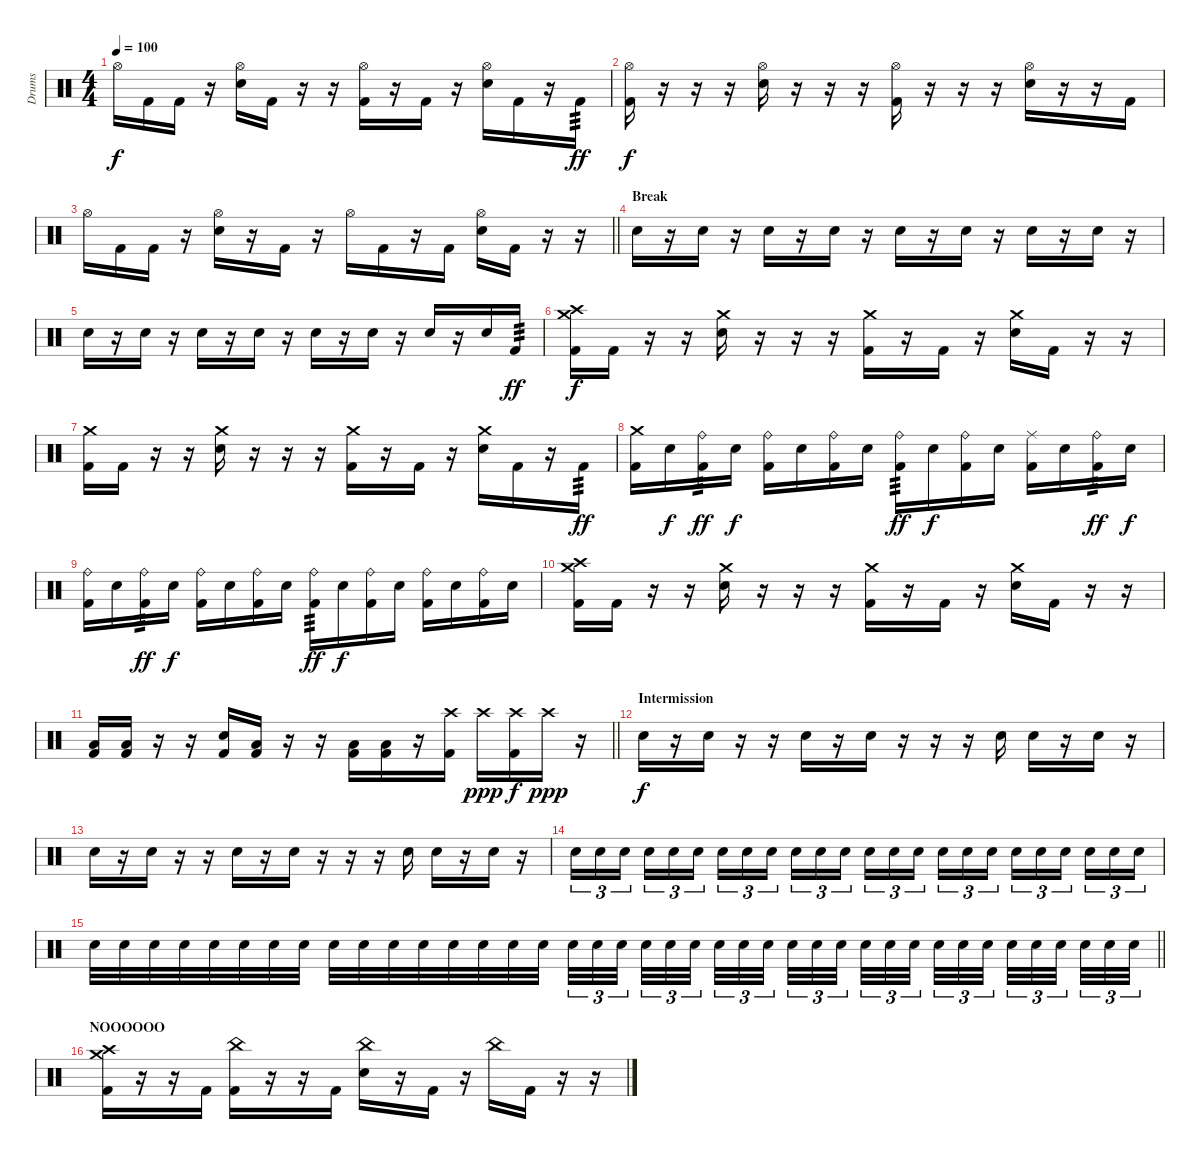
\track ("Drums" "Drums") {instrument percussion}
\staff {score}
\articulation defaults
\ts (4 4)
\tempo 100
\clef neutral
\ks c "Hi-Hat (open)".16{dy f} "Kick (hit) 2".16 "Kick (hit) 2".16
r.16 ("Hi-Hat (open)" "Snare (hit) 2").16 "Kick (hit) 2".16 r.16 r.16 ("Hi-Hat (open)" "Kick (hit) 2").16 r.16 "Kick (hit) 2".16 r.16 ("Hi-Hat (open)" "Snare (hit) 2").16 "Kick (hit) 2".16 r.16 "Kick (hit) 2".16{tp 3 dy ff} |
("Hi-Hat (open)" "Kick (hit) 2").16{dy f} r.16 r.16 r.16 ("Hi-Hat (open)" "Snare (hit) 2").16 r.16 r.16 r.16 ("Hi-Hat (open)" "Kick (hit) 2").16 r.16 r.16 r.16 ("Hi-Hat (open)" "Snare (hit) 2").16 r.16 r.16 "Kick (hit) 2".16 |
\barLineRight lightlight "Hi-Hat (open)".16 "Kick (hit) 2".16 "Kick (hit) 2".16
r.16 ("Hi-Hat (open)" "Snare (hit) 2").16 r.16 "Kick (hit) 2".16 r.16 "Hi-Hat (open)".16 "Kick (hit) 2".16 r.16 "Kick (hit) 2".16 ("Hi-Hat (open)" "Snare (hit) 2").16 "Kick (hit) 2".16 r.16 r.16 |
\section ("" "Break")
"Snare (hit) 2".16 r.16 "Snare (hit) 2".16 r.16 "Snare (hit) 2".16 r.16 "Snare (hit) 2".16 r.16 "Snare (hit) 2".16 r.16 "Snare (hit) 2".16 r.16 "Snare (hit) 2".16 r.16 "Snare (hit) 2".16 r.16 |
"Snare (hit) 2".16 r.16 "Snare (hit) 2".16 r.16 "Snare (hit) 2".16 r.16 "Snare (hit) 2".16 r.16 "Snare (hit) 2".16 r.16 "Snare (hit) 2".16 r.16 "Snare (hit) 2".16 r.16 "Snare (hit) 2".16 "Kick (hit) 2".16{tp 3 dy ff} |
("Crash medium (hit)" "Crash high (hit)" "Kick (hit) 2").16{dy f} "Kick (hit) 2".16 r.16 r.16 ("Crash medium (hit)" "Snare (hit) 2").16 r.16 r.16 r.16 ("Crash medium (hit)" "Kick (hit) 2").16 r.16 "Kick (hit) 2".16 r.16 ("Crash medium (hit)" "Snare (hit) 2").16 "Kick (hit) 2".16 r.16 r.16 |
("Crash medium (hit)" "Kick (hit) 2").16 "Kick (hit) 2".16 r.16 r.16 ("Crash medium (hit)" "Snare (hit) 2").16 r.16 r.16 r.16 ("Crash medium (hit)" "Kick (hit) 2").16 r.16 "Kick (hit) 2".16 r.16 ("Crash medium (hit)" "Snare (hit) 2").16 "Kick (hit) 2".16 r.16 "Kick (hit) 2".16{tp 3 dy ff} |
("Crash medium (hit)" "Kick (hit) 2").16 "Snare (hit) 2".16{dy f} ("Ride (bell)" "Kick (hit) 2").16{tp 3 dy ff} "Snare (hit) 2".16{dy f} ("Ride (bell)" "Kick (hit) 2").16 "Snare (hit) 2".16 ("Ride (bell)" "Kick (hit) 2").16 "Snare (hit) 2".16 ("Ride (bell)" "Kick (hit) 2").16{tp 3 dy ff} "Snare (hit) 2".16{dy f} ("Ride (bell)" "Kick (hit) 2").16 "Snare (hit) 2".16 ("Ride (middle)" "Kick (hit) 2").16 "Snare (hit) 2".16 ("Ride (bell)" "Kick (hit) 2").16{tp 3 dy ff} "Snare (hit) 2".16{dy f} |
("Ride (bell)" "Kick (hit) 2").16 "Snare (hit) 2".16 ("Ride (bell)" "Kick (hit) 2").16{tp 3 dy ff} "Snare (hit) 2".16{dy f} ("Ride (bell)" "Kick (hit) 2").16 "Snare (hit) 2".16 ("Ride (bell)" "Kick (hit) 2").16 "Snare (hit) 2".16 ("Ride (bell)" "Kick (hit) 2").16{tp 3 dy ff} "Snare (hit) 2".16{dy f} ("Ride (bell)" "Kick (hit) 2").16 "Snare (hit) 2".16 ("Ride (bell)" "Kick (hit) 2").16 "Snare (hit) 2".16 ("Ride (bell)" "Kick (hit) 2").16 "Snare (hit) 2".16 |
("Crash medium (hit)" "Crash high (hit)" "Kick (hit) 2").16 "Kick (hit) 2".16 r.16 r.16 ("Crash medium (hit)" "Snare (hit) 2").16 r.16 r.16 r.16 ("Crash medium (hit)" "Kick (hit) 2").16 r.16 "Kick (hit) 2".16 r.16 ("Crash medium (hit)" "Snare (hit) 2").16 "Kick (hit) 2".16 r.16 r.16 |
\barLineRight lightlight
("Low Tom (hit)" "Kick (hit) 2").16 ("Low Tom (hit)" "Kick (hit) 2").16 r.16 r.16 ("Snare (hit) 2" "Kick (hit) 2").16 ("Low Tom (hit)" "Kick (hit) 2").16 r.16 r.16 ("Low Tom (hit)" "Kick (hit) 2").16 ("Low Tom (hit)" "Kick (hit) 2").16 r.16 ("Crash high (hit)" "Kick (hit) 2").16 "Crash high (hit)".16{dy ppp} ("Crash high (hit)" "Kick (hit) 2").16{dy f} "Crash high (hit)".16{dy ppp} r.16 |
\section ("" "Intermission")
"Snare (hit) 2".16{dy f} r.16 "Snare (hit) 2".16 r.16 r.16 "Snare (hit) 2".16 r.16 "Snare (hit) 2".16 r.16 r.16 r.16 "Snare (hit) 2".16 "Snare (hit) 2".16 r.16 "Snare (hit) 2".16 r.16 |
"Snare (hit) 2".16 r.16 "Snare (hit) 2".16 r.16 r.16 "Snare (hit) 2".16 r.16 "Snare (hit) 2".16 r.16 r.16 r.16 "Snare (hit) 2".16 "Snare (hit) 2".16 r.16 "Snare (hit) 2".16 r.16 |
"Snare (hit) 2".16{tu (3 2)} "Snare (hit) 2".16{tu (3 2)} "Snare (hit) 2".16{tu (3 2) beam splitsecondary} "Snare (hit) 2".16{tu (3 2)} "Snare (hit) 2".16{tu (3 2)} "Snare (hit) 2".16{tu (3 2)} "Snare (hit) 2".16{tu (3 2)} "Snare (hit) 2".16{tu (3 2)} "Snare (hit) 2".16{tu (3 2) beam splitsecondary} "Snare (hit) 2".16{tu (3 2)} "Snare (hit) 2".16{tu (3 2)} "Snare (hit) 2".16{tu (3 2)} "Snare (hit) 2".16{tu (3 2)} "Snare (hit) 2".16{tu (3 2)} "Snare (hit) 2".16{tu (3 2) beam splitsecondary} "Snare (hit) 2".16{tu (3 2)} "Snare (hit) 2".16{tu (3 2)} "Snare (hit) 2".16{tu (3 2)} "Snare (hit) 2".16{tu (3 2)} "Snare (hit) 2".16{tu (3 2)} "Snare (hit) 2".16{tu (3 2) beam splitsecondary} "Snare (hit) 2".16{tu (3 2)} "Snare (hit) 2".16{tu (3 2)} "Snare (hit) 2".16{tu (3 2)} |
\barLineRight lightlight "Snare (hit) 2".32 "Snare (hit) 2".32 "Snare (hit) 2".32 "Snare (hit) 2".32 "Snare (hit) 2".32 "Snare (hit) 2".32 "Snare (hit) 2".32 "Snare (hit) 2".32 "Snare (hit) 2".32 "Snare (hit) 2".32 "Snare (hit) 2".32 "Snare (hit) 2".32 "Snare (hit) 2".32 "Snare (hit) 2".32 "Snare (hit) 2".32 "Snare (hit) 2".32 "Snare (hit) 2".32{tu (3 2)} "Snare (hit) 2".32{tu (3 2)} "Snare (hit) 2".32{tu (3 2) beam splitsecondary} "Snare (hit) 2".32{tu (3 2)} "Snare (hit) 2".32{tu (3 2)} "Snare (hit) 2".32{tu (3 2) beam splitsecondary} "Snare (hit) 2".32{tu (3 2)} "Snare (hit) 2".32{tu (3 2)} "Snare (hit) 2".32{tu (3 2) beam splitsecondary} "Snare (hit) 2".32{tu (3 2)} "Snare (hit) 2".32{tu (3 2)} "Snare (hit) 2".32{tu (3 2)} "Snare (hit) 2".32{tu (3 2)} "Snare (hit) 2".32{tu (3 2)} "Snare (hit) 2".32{tu (3 2) beam splitsecondary} "Snare (hit) 2".32{tu (3 2)} "Snare (hit) 2".32{tu (3 2)} "Snare (hit) 2".32{tu (3 2) beam splitsecondary} "Snare (hit) 2".32{tu (3 2)} "Snare (hit) 2".32{tu (3 2)} "Snare (hit) 2".32{tu (3 2) beam splitsecondary} "Snare (hit) 2".32{tu (3 2)} "Snare (hit) 2".32{tu (3 2)} "Snare (hit) 2".32{tu (3 2)}
|
\section ("" "NOOOOOO")
("Crash medium (hit)" "Crash high (hit)" "Kick (hit) 2").16 r.16 r.16 "Kick (hit) 2".16 ("China (hit)" "Kick (hit) 2").16 r.16 r.16 "Kick (hit) 2".16 ("China (hit)" "Snare (hit) 2").16 r.16 "Kick (hit) 2".16 r.16 "China (hit)".16 "Kick (hit) 2".16 r.16 r.16
